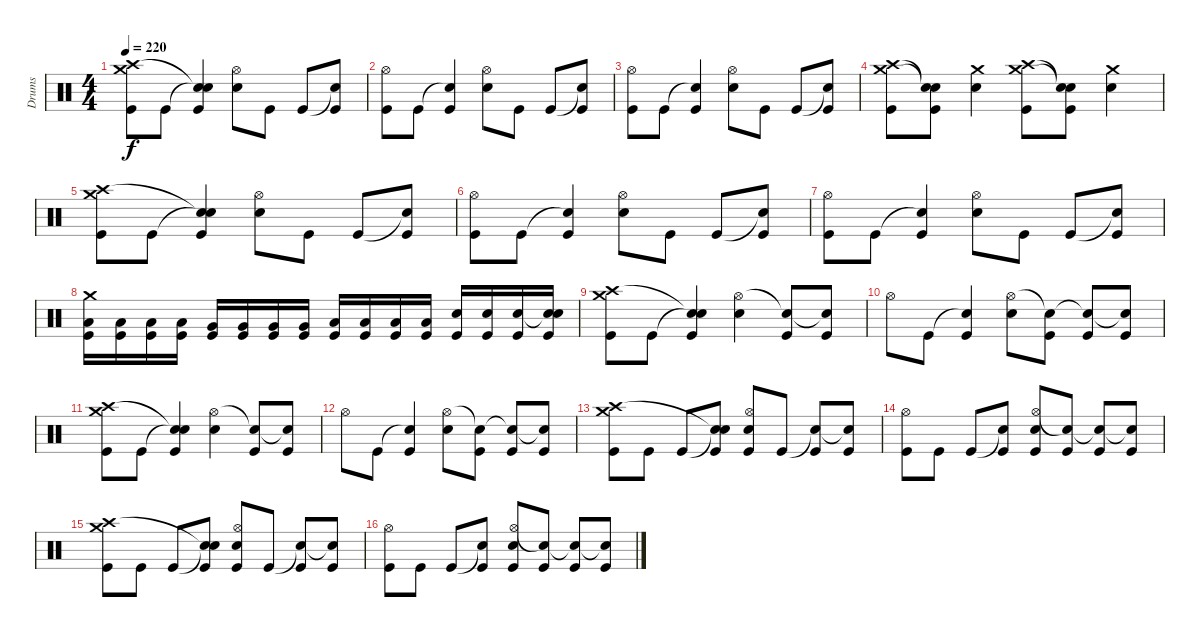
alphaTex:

\track ("Drums" "Drums") {instrument percussion}
\staff {score}
\articulation defaults
\ts (4 4)
\tempo 220
\clef neutral
\ks c
("Crash medium (hit)" "Crash high (hit)" "Kick (hit)").8{dy f} "Kick (hit)".8 ("Snare (hit)"{t} "Snare (hit)"{t} "Kick (hit)").4 ("Hi-Hat (open)" "Electric Snare (hit)").8 "Kick (hit)".8 "Kick (hit)".8 ("Snare (hit)"{t} "Kick (hit)").8 |
("Hi-Hat (open)" "Kick (hit)").8 "Kick (hit)".8 ("Snare (hit)"{t} "Kick (hit)").4 ("Hi-Hat (open)" "Electric Snare (hit)").8 "Kick (hit)".8 "Kick (hit)".8 ("Snare (hit)"{t} "Kick (hit)").8 |
("Hi-Hat (open)" "Kick (hit)").8 "Kick (hit)".8 ("Snare (hit)"{t} "Kick (hit)").4 ("Hi-Hat (open)" "Electric Snare (hit)").8 "Kick (hit)".8 "Kick (hit)".8 ("Snare (hit)"{t} "Kick (hit)").8 |
("Crash medium (hit)" "Crash high (hit)" "Kick (hit)").8 ("Snare (hit)"{t} "Snare (hit)"{t} "Kick (hit)").8 ("Crash medium (hit)" "Electric Snare (hit)").4 ("Crash medium (hit)" "Crash high (hit)" "Kick (hit)").8 ("Snare (hit)"{t} "Snare (hit)"{t} "Kick (hit)").8 ("Crash medium (hit)" "Electric Snare (hit)").4 |
("Crash medium (hit)" "Crash high (hit)" "Kick (hit)").8 "Kick (hit)".8 ("Snare (hit)"{t} "Snare (hit)"{t} "Kick (hit)").4 ("Hi-Hat (open)" "Electric Snare (hit)").8 "Kick (hit)".8 "Kick (hit)".8 ("Snare (hit)"{t} "Kick (hit)").8 |
("Hi-Hat (open)" "Kick (hit)").8 "Kick (hit)".8 ("Snare (hit)"{t} "Kick (hit)").4 ("Hi-Hat (open)" "Electric Snare (hit)").8 "Kick (hit)".8 "Kick (hit)".8 ("Snare (hit)"{t} "Kick (hit)").8 |
("Hi-Hat (open)" "Kick (hit)").8 "Kick (hit)".8 ("Snare (hit)"{t} "Kick (hit)").4 ("Hi-Hat (open)" "Electric Snare (hit)").8 "Kick (hit)".8 "Kick (hit)".8 ("Snare (hit)"{t} "Kick (hit)").8 |
("Crash medium (hit)" "Low Tom (hit)" "Kick (hit)").16 ("Low Tom (hit)" "Kick (hit)").16 ("Low Tom (hit)" "Kick (hit)").16 ("Low Tom (hit)" "Kick (hit)").16 ("Very Low Tom (hit)" "Kick (hit)").16 ("Very Low Tom (hit)" "Kick (hit)").16 ("Very Low Tom (hit)" "Kick (hit)").16 ("Very Low Tom (hit)" "Kick (hit)").16 ("Low Floor Tom (hit)" "Kick (hit)").16 ("Low Floor Tom (hit)" "Kick (hit)").16 ("Low Floor Tom (hit)" "Kick (hit)").16 ("Low Floor Tom (hit)" "Kick (hit)").16 ("Electric Snare (hit)" "Kick (hit)").16 ("Electric Snare (hit)" "Kick (hit)").16 ("Electric Snare (hit)" "Kick (hit)").16 ("Snare (hit)"{t} "Electric Snare (hit)" "Kick (hit)").16 |
("Crash medium (hit)" "Crash high (hit)" "Kick (hit)").8 "Kick (hit)".8 ("Snare (hit)"{t} "Snare (hit)"{t} "Kick (hit)").4 ("Hi-Hat (open)" "Electric Snare (hit)").4 ("Snare (hit)"{t} "Kick (hit)").8 ("Snare (hit)"{t} "Kick (hit)").8 |
"Hi-Hat (open)".8 "Kick (hit)".8 ("Snare (hit)"{t} "Kick (hit)").4 ("Hi-Hat (open)" "Electric Snare (hit)").8 ("Snare (hit)"{t} "Kick (hit)").8 ("Snare (hit)"{t} "Kick (hit)").8 ("Snare (hit)"{t} "Kick (hit)").8 |
("Crash medium (hit)" "Crash high (hit)" "Kick (hit)").8 "Kick (hit)".8 ("Snare (hit)"{t} "Snare (hit)"{t} "Kick (hit)").4 ("Hi-Hat (open)" "Electric Snare (hit)").4 ("Snare (hit)"{t} "Kick (hit)").8 ("Snare (hit)"{t} "Kick (hit)").8 |
"Hi-Hat (open)".8 "Kick (hit)".8 ("Snare (hit)"{t} "Kick (hit)").4 ("Hi-Hat (open)" "Electric Snare (hit)").8 ("Snare (hit)"{t} "Kick (hit)").8 ("Snare (hit)"{t} "Kick (hit)").8 ("Snare (hit)"{t} "Kick (hit)").8 |
("Crash medium (hit)" "Crash high (hit)" "Kick (hit)").8 "Kick (hit)".8 "Kick (hit)".8 ("Snare (hit)"{t} "Snare (hit)"{t} "Kick (hit)").8 ("Hi-Hat (open)" "Electric Snare (hit)" "Kick (hit)").8 "Kick (hit)".8 ("Snare (hit)"{t} "Kick (hit)").8 ("Snare (hit)"{t} "Kick (hit)").8 |
("Hi-Hat (open)" "Kick (hit)").8 "Kick (hit)".8 "Kick (hit)".8 ("Snare (hit)"{t} "Kick (hit)").8 ("Hi-Hat (open)" "Electric Snare (hit)" "Kick (hit)").8 ("Snare (hit)"{t} "Kick (hit)").8 ("Snare (hit)"{t} "Kick (hit)").8 ("Snare (hit)"{t} "Kick (hit)").8 |
("Crash medium (hit)" "Crash high (hit)" "Kick (hit)").8 "Kick (hit)".8 "Kick (hit)".8 ("Snare (hit)"{t} "Snare (hit)"{t} "Kick (hit)").8 ("Hi-Hat (open)" "Electric Snare (hit)" "Kick (hit)").8 "Kick (hit)".8 ("Snare (hit)"{t} "Kick (hit)").8 ("Snare (hit)"{t} "Kick (hit)").8 |
("Hi-Hat (open)" "Kick (hit)").8 "Kick (hit)".8 "Kick (hit)".8 ("Snare (hit)"{t} "Kick (hit)").8 ("Hi-Hat (open)" "Electric Snare (hit)" "Kick (hit)").8 ("Snare (hit)"{t} "Kick (hit)").8 ("Snare (hit)"{t} "Kick (hit)").8 ("Snare (hit)"{t} "Kick (hit)").8
